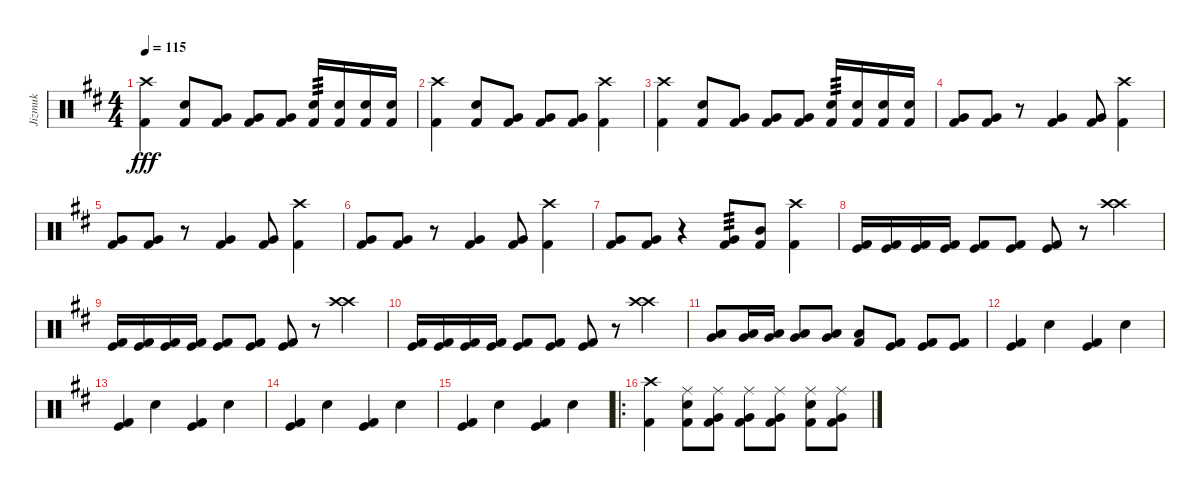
\track ("Jizmuk" "Jizmuk") {instrument percussion}
\staff {score}
\articulation defaults
\ts (4 4)
\tempo 115
\clef neutral
\ks d
("Crash high (hit)" "Kick (hit) 2").4{dy fff} ("Snare (hit) 2" "Kick (hit) 2").8 ("Very Low Tom (hit)" "Kick (hit) 2").8 ("Very Low Tom (hit)" "Kick (hit) 2").8 ("Very Low Tom (hit)" "Kick (hit) 2").8 ("Kick (hit) 2" "Snare (hit) 2").16{tp 3} ("Kick (hit) 2" "Snare (hit) 2").16 ("Kick (hit) 2" "Snare (hit) 2").16 ("Kick (hit) 2" "Snare (hit) 2").16 |
("Crash high (hit)" "Kick (hit) 2").4 ("Kick (hit) 2" "Snare (hit) 2").8 ("Very Low Tom (hit)" "Kick (hit) 2").8 ("Very Low Tom (hit)" "Kick (hit) 2").8 ("Very Low Tom (hit)" "Kick (hit) 2").8 ("Crash high (hit)" "Kick (hit) 2").4 |
("Crash high (hit)" "Kick (hit) 2").4 ("Snare (hit) 2" "Kick (hit) 2").8 ("Very Low Tom (hit)" "Kick (hit) 2").8 ("Very Low Tom (hit)" "Kick (hit) 2").8 ("Very Low Tom (hit)" "Kick (hit) 2").8 ("Kick (hit) 2" "Snare (hit) 2").16{tp 3} ("Kick (hit) 2" "Snare (hit) 2").16 ("Kick (hit) 2" "Snare (hit) 2").16 ("Kick (hit) 2" "Snare (hit) 2").16 |
("Kick (hit) 2" "Very Low Tom (hit)").8 ("Kick (hit) 2" "Very Low Tom (hit)").8 r.8 ("Kick (hit) 2" "Very Low Tom (hit)").4 ("Kick (hit) 2" "Very Low Tom (hit)").8 ("Kick (hit) 2" "Crash high (hit)").4 |
("Kick (hit) 2" "Very Low Tom (hit)").8 ("Kick (hit) 2" "Very Low Tom (hit)").8 r.8 ("Kick (hit) 2" "Very Low Tom (hit)").4 ("Kick (hit) 2" "Very Low Tom (hit)").8 ("Kick (hit) 2" "Crash high (hit)").4 |
("Kick (hit) 2" "Very Low Tom (hit)").8 ("Kick (hit) 2" "Very Low Tom (hit)").8 r.8 ("Kick (hit) 2" "Very Low Tom (hit)").4 ("Kick (hit) 2" "Very Low Tom (hit)").8 ("Kick (hit) 2" "Crash high (hit)").4 |
("Kick (hit) 2" "Very Low Tom (hit)").8 ("Kick (hit) 2" "Very Low Tom (hit)").8 r.4 ("Kick (hit) 2" "Very Low Tom (hit)").8{tp 3} ("Kick (hit) 2" "Mid Tom (hit)").8 ("Kick (hit) 2" "Crash high (hit)").4 |
("Kick (hit)" "Kick (hit) 2").16 ("Kick (hit)" "Kick (hit) 2").16 ("Kick (hit)" "Kick (hit) 2").16 ("Kick (hit)" "Kick (hit) 2").16 ("Kick (hit)" "Kick (hit) 2").8 ("Kick (hit)" "Kick (hit) 2").8 ("Kick (hit)" "Kick (hit) 2").8 r.8 ("Crash high (hit)" "Crash high (hit)").4 |
("Kick (hit)" "Kick (hit) 2").16 ("Kick (hit)" "Kick (hit) 2").16 ("Kick (hit)" "Kick (hit) 2").16 ("Kick (hit)" "Kick (hit) 2").16 ("Kick (hit)" "Kick (hit) 2").8 ("Kick (hit)" "Kick (hit) 2").8 ("Kick (hit)" "Kick (hit) 2").8 r.8 ("Crash high (hit)" "Crash high (hit)").4 |
("Kick (hit)" "Kick (hit) 2").16 ("Kick (hit)" "Kick (hit) 2").16 ("Kick (hit)" "Kick (hit) 2").16 ("Kick (hit)" "Kick (hit) 2").16 ("Kick (hit)" "Kick (hit) 2").8 ("Kick (hit)" "Kick (hit) 2").8 ("Kick (hit)" "Kick (hit) 2").8 r.8 ("Crash high (hit)" "Crash high (hit)").4 |
("Low Tom (hit)" "Very Low Tom (hit)").8 ("Low Tom (hit)" "Very Low Tom (hit)").16 ("Low Tom (hit)" "Very Low Tom (hit)").16 ("Low Tom (hit)" "Very Low Tom (hit)").8 ("Very Low Tom (hit)" "Low Floor Tom (hit)").8 ("Low Floor Tom (hit)" "Kick (hit) 2").8 ("Kick (hit) 2" "Kick (hit)").8 ("Kick (hit) 2" "Kick (hit)").8 ("Kick (hit) 2" "Kick (hit)").8 |
("Kick (hit) 2" "Kick (hit)").4 "Snare (hit) 2".4 ("Kick (hit) 2" "Kick (hit)").4 "Snare (hit) 2".4 |
("Kick (hit) 2" "Kick (hit)").4 "Snare (hit) 2".4 ("Kick (hit) 2" "Kick (hit)").4 "Snare (hit) 2".4 |
("Kick (hit) 2" "Kick (hit)").4 "Snare (hit) 2".4 ("Kick (hit) 2" "Kick (hit)").4 "Snare (hit) 2".4 |
("Kick (hit) 2" "Kick (hit)").4 "Snare (hit) 2".4 ("Kick (hit) 2" "Kick (hit)").4 "Snare (hit) 2".4 |
\ro
("Crash high (hit)" "Kick (hit) 2").4 ("Ride (middle)" "Snare (hit) 2" "Kick (hit) 2").8 ("Ride (middle)" "Very Low Tom (hit)" "Kick (hit) 2").8 ("Ride (middle)" "Very Low Tom (hit)" "Kick (hit) 2").8 ("Ride (middle)" "Very Low Tom (hit)" "Kick (hit) 2").8 ("Ride (middle)" "Snare (hit) 2" "Kick (hit) 2").8 ("Ride (middle)" "Very Low Tom (hit)" "Kick (hit) 2").8
